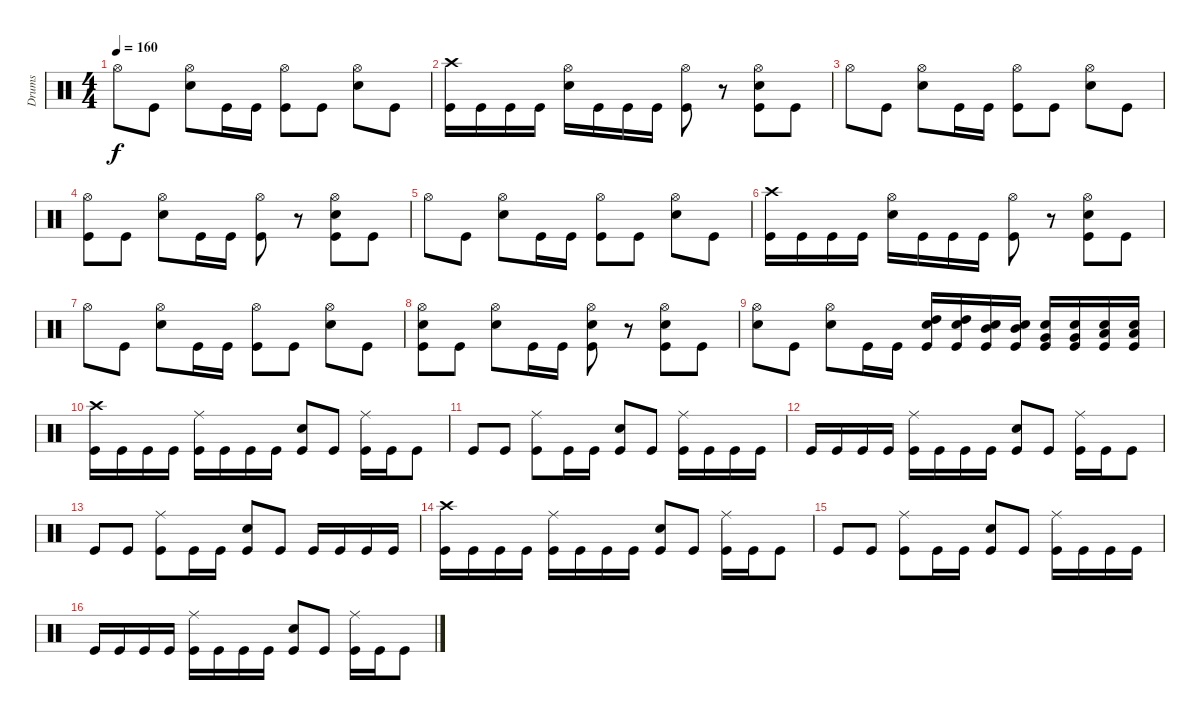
\track ("Drums" "Drums") {instrument percussion}
\staff {score}
\articulation defaults
\ts (4 4)
\tempo 160
\clef neutral
\ks c "Hi-Hat (open)".8{dy f} "Kick (hit)".8
("Hi-Hat (open)" "Electric Snare (hit)").8 "Kick (hit)".16 "Kick (hit)".16 ("Hi-Hat (open)" "Kick (hit)").8 "Kick (hit)".8 ("Hi-Hat (open)" "Electric Snare (hit)").8 "Kick (hit)".8 |
("Crash high (hit)" "Kick (hit)").16 "Kick (hit)".16 "Kick (hit)".16 "Kick (hit)".16 ("Hi-Hat (open)" "Electric Snare (hit)").16 "Kick (hit)".16 "Kick (hit)".16 "Kick (hit)".16 ("Hi-Hat (open)" "Kick (hit)").8 r.8 ("Hi-Hat (open)" "Electric Snare (hit)" "Kick (hit)").8 "Kick (hit)".8 |
"Hi-Hat (open)".8 "Kick (hit)".8 ("Hi-Hat (open)" "Electric Snare (hit)").8 "Kick (hit)".16 "Kick (hit)".16 ("Hi-Hat (open)" "Kick (hit)").8 "Kick (hit)".8 ("Hi-Hat (open)" "Electric Snare (hit)").8 "Kick (hit)".8 |
("Hi-Hat (open)" "Kick (hit)").8 "Kick (hit)".8 ("Hi-Hat (open)" "Electric Snare (hit)").8 "Kick (hit)".16 "Kick (hit)".16 ("Hi-Hat (open)" "Kick (hit)").8 r.8 ("Hi-Hat (open)" "Electric Snare (hit)" "Kick (hit)").8 "Kick (hit)".8 |
"Hi-Hat (open)".8 "Kick (hit)".8 ("Hi-Hat (open)" "Electric Snare (hit)").8 "Kick (hit)".16 "Kick (hit)".16 ("Hi-Hat (open)" "Kick (hit)").8 "Kick (hit)".8 ("Hi-Hat (open)" "Electric Snare (hit)").8 "Kick (hit)".8 |
("Crash high (hit)" "Kick (hit)").16 "Kick (hit)".16 "Kick (hit)".16 "Kick (hit)".16 ("Hi-Hat (open)" "Electric Snare (hit)").16 "Kick (hit)".16 "Kick (hit)".16 "Kick (hit)".16 ("Hi-Hat (open)" "Kick (hit)").8 r.8 ("Hi-Hat (open)" "Electric Snare (hit)" "Kick (hit)").8 "Kick (hit)".8 |
"Hi-Hat (open)".8 "Kick (hit)".8 ("Hi-Hat (open)" "Electric Snare (hit)").8 "Kick (hit)".16 "Kick (hit)".16 ("Hi-Hat (open)" "Kick (hit)").8 "Kick (hit)".8 ("Hi-Hat (open)" "Electric Snare (hit)").8 "Kick (hit)".8 |
("Hi-Hat (open)" "Electric Snare (hit)" "Kick (hit)").8 "Kick (hit)".8 ("Hi-Hat (open)" "Electric Snare (hit)").8 "Kick (hit)".16 "Kick (hit)".16 ("Hi-Hat (open)" "Electric Snare (hit)" "Kick (hit)").8 r.8 ("Hi-Hat (open)" "Electric Snare (hit)" "Kick (hit)").8 "Kick (hit)".8 |
("Hi-Hat (open)" "Electric Snare (hit)").8 "Kick (hit)".8 ("Hi-Hat (open)" "Electric Snare (hit)").8 "Kick (hit)".16 "Kick (hit)".16 ("High Tom (hit)" "Electric Snare (hit)" "Kick (hit)").16 ("High Tom (hit)" "Electric Snare (hit)" "Kick (hit)").16 ("Mid Tom (hit)" "Electric Snare (hit)" "Kick (hit)").16 ("Mid Tom (hit)" "Electric Snare (hit)" "Kick (hit)").16 ("Very Low Tom (hit)" "Electric Snare (hit)" "Kick (hit)").16 ("Very Low Tom (hit)" "Electric Snare (hit)" "Kick (hit)").16 ("Low Floor Tom (hit)" "Electric Snare (hit)" "Kick (hit)").16 ("Low Floor Tom (hit)" "Electric Snare (hit)" "Kick (hit)").16 |
("Crash high (hit)" "Kick (hit)").16 "Kick (hit)".16 "Kick (hit)".16 "Kick (hit)".16 ("Ride (middle)" "Kick (hit)").16 "Kick (hit)".16 "Kick (hit)".16 "Kick (hit)".16 ("Electric Snare (hit)" "Kick (hit)").8 "Kick (hit)".8 ("Ride (middle)" "Kick (hit)").16 "Kick (hit)".16 "Kick (hit)".8 |
"Kick (hit)".8 "Kick (hit)".8 ("Ride (middle)" "Kick (hit)").8 "Kick (hit)".16 "Kick (hit)".16 ("Electric Snare (hit)" "Kick (hit)").8 "Kick (hit)".8 ("Ride (middle)" "Kick (hit)").16 "Kick (hit)".16 "Kick (hit)".16 "Kick (hit)".16 |
"Kick (hit)".16 "Kick (hit)".16 "Kick (hit)".16 "Kick (hit)".16 ("Ride (middle)" "Kick (hit)").16 "Kick (hit)".16 "Kick (hit)".16 "Kick (hit)".16 ("Electric Snare (hit)" "Kick (hit)").8 "Kick (hit)".8 ("Ride (middle)" "Kick (hit)").16 "Kick (hit)".16 "Kick (hit)".8 |
"Kick (hit)".8 "Kick (hit)".8 ("Ride (middle)" "Kick (hit)").8 "Kick (hit)".16 "Kick (hit)".16 ("Electric Snare (hit)" "Kick (hit)").8 "Kick (hit)".8 "Kick (hit)".16 "Kick (hit)".16 "Kick (hit)".16 "Kick (hit)".16 |
("Crash high (hit)" "Kick (hit)").16 "Kick (hit)".16 "Kick (hit)".16 "Kick (hit)".16 ("Ride (middle)" "Kick (hit)").16 "Kick (hit)".16 "Kick (hit)".16 "Kick (hit)".16 ("Electric Snare (hit)" "Kick (hit)").8 "Kick (hit)".8 ("Ride (middle)" "Kick (hit)").16 "Kick (hit)".16 "Kick (hit)".8 |
"Kick (hit)".8 "Kick (hit)".8 ("Ride (middle)" "Kick (hit)").8 "Kick (hit)".16 "Kick (hit)".16 ("Electric Snare (hit)" "Kick (hit)").8 "Kick (hit)".8 ("Ride (middle)" "Kick (hit)").16 "Kick (hit)".16 "Kick (hit)".16 "Kick (hit)".16 |
"Kick (hit)".16 "Kick (hit)".16 "Kick (hit)".16 "Kick (hit)".16 ("Ride (middle)" "Kick (hit)").16 "Kick (hit)".16 "Kick (hit)".16 "Kick (hit)".16 ("Electric Snare (hit)" "Kick (hit)").8 "Kick (hit)".8 ("Ride (middle)" "Kick (hit)").16 "Kick (hit)".16 "Kick (hit)".8
